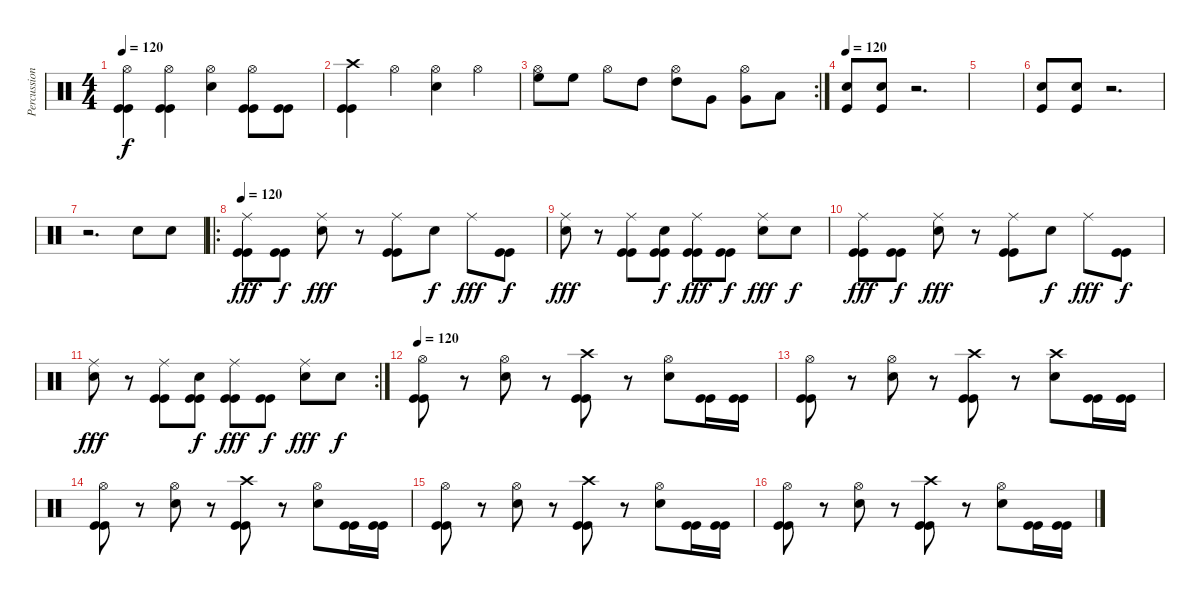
\track ("Percussion" "Percussion") {instrument percussion}
\staff {score}
\articulation defaults
\ts (4 4)
\tempo 120
\clef neutral
\ks c
("Hi-Hat (open)" "Kick (hit)" "Kick (hit)").4{dy f} ("Hi-Hat (open)" "Kick (hit)" "Kick (hit)").4 ("Hi-Hat (open)" "Snare (hit) 2").4 ("Hi-Hat (open)" "Kick (hit)" "Kick (hit)").8 ("Kick (hit)" "Kick (hit)").8 |
("Crash high (hit)" "Kick (hit)" "Kick (hit)").4 "Hi-Hat (open)".4 ("Hi-Hat (open)" "Snare (hit) 2").4 "Hi-Hat (open)".4 |
\rc 2
("Hi-Hat (open)" "High Floor Tom (hit)").8 "High Floor Tom (hit)".8 "Hi-Hat (open)".8 "High Tom (hit)".8 ("Hi-Hat (open)" "High Tom (hit)").8 "Very Low Tom (hit)".8 ("Hi-Hat (open)" "Very Low Tom (hit)").8 "Low Floor Tom (hit)".8 |
\tempo 120
("Kick (hit)" "Snare (hit) 2").8 ("Kick (hit)" "Snare (hit) 2").8 r.2{d} |
|
("Kick (hit)" "Snare (hit) 2").8 ("Kick (hit)" "Snare (hit) 2").8 r.2{d} |
r.2{d} "Snare (hit) 2".8 "Snare (hit) 2".8 |
\ro
\tempo 120
("Ride (middle)" "Kick (hit)" "Kick (hit)").8{dy fff} ("Kick (hit)" "Kick (hit)").8{dy f} ("Ride (middle)" "Snare (hit) 2").8{dy fff} r.8 ("Ride (middle)" "Kick (hit)" "Kick (hit)").8 "Snare (hit) 2".8{dy f} "Ride (middle)".8{dy fff} ("Kick (hit)" "Kick (hit)").8{dy f} |
("Ride (middle)" "Snare (hit) 2").8{dy fff} r.8 ("Ride (middle)" "Kick (hit)" "Kick (hit)").8 ("Snare (hit) 2" "Kick (hit)" "Kick (hit)").8{dy f} ("Ride (middle)" "Kick (hit)" "Kick (hit)").8{dy fff} ("Kick (hit)" "Kick (hit)").8{dy f} ("Ride (middle)" "Snare (hit) 2").8{dy fff} "Snare (hit) 2".8{dy f} |
("Ride (middle)" "Kick (hit)" "Kick (hit)").8{dy fff} ("Kick (hit)" "Kick (hit)").8{dy f} ("Ride (middle)" "Snare (hit) 2").8{dy fff} r.8 ("Ride (middle)" "Kick (hit)" "Kick (hit)").8 "Snare (hit) 2".8{dy f} "Ride (middle)".8{dy fff} ("Kick (hit)" "Kick (hit)").8{dy f} |
\rc 2
("Ride (middle)" "Snare (hit) 2").8{dy fff} r.8 ("Ride (middle)" "Kick (hit)" "Kick (hit)").8 ("Snare (hit) 2" "Kick (hit)" "Kick (hit)").8{dy f} ("Ride (middle)" "Kick (hit)" "Kick (hit)").8{dy fff} ("Kick (hit)" "Kick (hit)").8{dy f} ("Ride (middle)" "Snare (hit) 2").8{dy fff} "Snare (hit) 2".8{dy f} |
\tempo 120
("Hi-Hat (open)" "Kick (hit)" "Kick (hit)").8 r.8 ("Hi-Hat (open)" "Snare (hit) 2").8 r.8 ("Crash high (hit)" "Kick (hit)" "Kick (hit)").8 r.8 ("Hi-Hat (open)" "Snare (hit) 2").8 ("Kick (hit)" "Kick (hit)").16 ("Kick (hit)" "Kick (hit)").16 |
("Hi-Hat (open)" "Kick (hit)" "Kick (hit)").8 r.8 ("Hi-Hat (open)" "Snare (hit) 2").8 r.8 ("Crash high (hit)" "Kick (hit)" "Kick (hit)").8 r.8 ("Crash high (hit)" "Snare (hit) 2").8 ("Kick (hit)" "Kick (hit)").16 ("Kick (hit)" "Kick (hit)").16 |
("Hi-Hat (open)" "Kick (hit)" "Kick (hit)").8 r.8 ("Hi-Hat (open)" "Snare (hit) 2").8 r.8 ("Crash high (hit)" "Kick (hit)" "Kick (hit)").8 r.8 ("Hi-Hat (open)" "Snare (hit) 2").8 ("Kick (hit)" "Kick (hit)").16 ("Kick (hit)" "Kick (hit)").16 |
("Hi-Hat (open)" "Kick (hit)" "Kick (hit)").8 r.8 ("Hi-Hat (open)" "Snare (hit) 2").8 r.8 ("Crash high (hit)" "Kick (hit)" "Kick (hit)").8 r.8 ("Hi-Hat (open)" "Snare (hit) 2").8 ("Kick (hit)" "Kick (hit)").16 ("Kick (hit)" "Kick (hit)").16 |
("Hi-Hat (open)" "Kick (hit)" "Kick (hit)").8 r.8 ("Hi-Hat (open)" "Snare (hit) 2").8 r.8 ("Crash high (hit)" "Kick (hit)" "Kick (hit)").8 r.8 ("Hi-Hat (open)" "Snare (hit) 2").8 ("Kick (hit)" "Kick (hit)").16 ("Kick (hit)" "Kick (hit)").16
